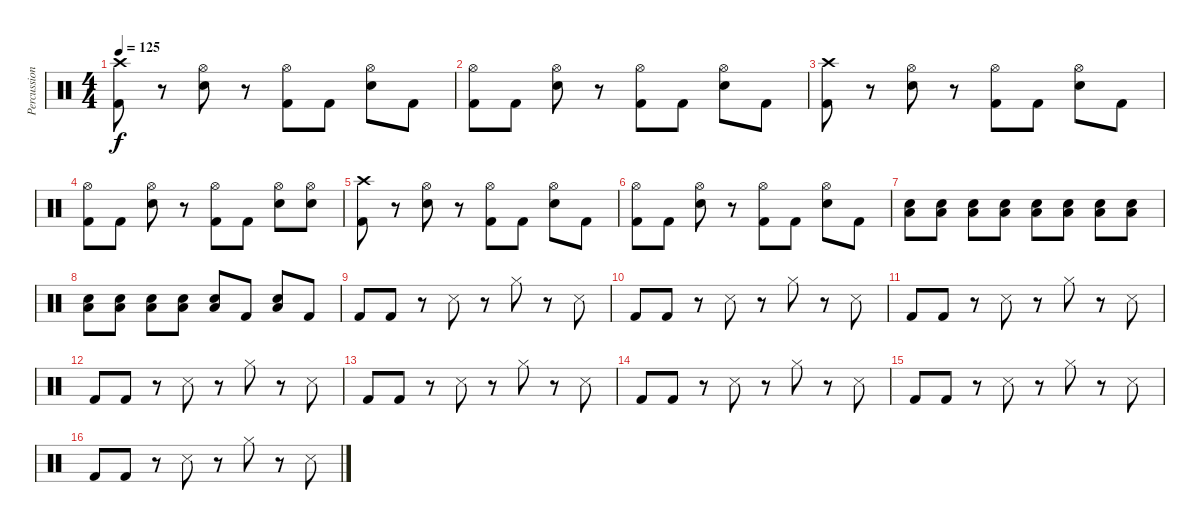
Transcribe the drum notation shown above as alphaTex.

\track ("Percussion" "Percussion") {instrument percussion}
\staff {score}
\articulation defaults
\ts (4 4)
\tempo 125
\clef neutral
\ks c
("Crash high (hit)" "Kick (hit) 2").8{dy f} r.8 ("Hi-Hat (open)" "Snare (hit) 2").8 r.8 ("Hi-Hat (open)" "Kick (hit) 2").8 "Kick (hit) 2".8 ("Hi-Hat (open)" "Snare (hit) 2").8 "Kick (hit) 2".8 |
("Hi-Hat (open)" "Kick (hit) 2").8 "Kick (hit) 2".8 ("Hi-Hat (open)" "Snare (hit) 2").8 r.8 ("Hi-Hat (open)" "Kick (hit) 2").8 "Kick (hit) 2".8 ("Hi-Hat (open)" "Snare (hit) 2").8 "Kick (hit) 2".8 |
("Crash high (hit)" "Kick (hit) 2").8 r.8 ("Hi-Hat (open)" "Snare (hit) 2").8 r.8 ("Hi-Hat (open)" "Kick (hit) 2").8 "Kick (hit) 2".8 ("Hi-Hat (open)" "Snare (hit) 2").8 "Kick (hit) 2".8 |
("Hi-Hat (open)" "Kick (hit) 2").8 "Kick (hit) 2".8 ("Hi-Hat (open)" "Snare (hit) 2").8 r.8 ("Hi-Hat (open)" "Kick (hit) 2").8 "Kick (hit) 2".8 ("Hi-Hat (open)" "Snare (hit) 2").8 ("Hi-Hat (open)" "Snare (hit) 2").8 |
("Crash high (hit)" "Kick (hit) 2").8 r.8 ("Hi-Hat (open)" "Snare (hit) 2").8 r.8 ("Hi-Hat (open)" "Kick (hit) 2").8 "Kick (hit) 2".8 ("Hi-Hat (open)" "Snare (hit) 2").8 "Kick (hit) 2".8 |
("Hi-Hat (open)" "Kick (hit) 2").8 "Kick (hit) 2".8 ("Hi-Hat (open)" "Snare (hit) 2").8 r.8 ("Hi-Hat (open)" "Kick (hit) 2").8 "Kick (hit) 2".8 ("Hi-Hat (open)" "Snare (hit) 2").8 "Kick (hit) 2".8 |
("Low Floor Tom (hit)" "Snare (hit) 2").8 ("Low Floor Tom (hit)" "Snare (hit) 2").8 ("Low Floor Tom (hit)" "Snare (hit) 2").8 ("Low Floor Tom (hit)" "Snare (hit) 2").8 ("Low Floor Tom (hit)" "Snare (hit) 2").8 ("Low Floor Tom (hit)" "Snare (hit) 2").8 ("Low Floor Tom (hit)" "Snare (hit) 2").8 ("Low Floor Tom (hit)" "Snare (hit) 2").8 |
("Low Floor Tom (hit)" "Snare (hit) 2").8 ("Low Floor Tom (hit)" "Snare (hit) 2").8 ("Low Floor Tom (hit)" "Snare (hit) 2").8 ("Low Floor Tom (hit)" "Snare (hit) 2").8 ("Low Floor Tom (hit)" "Snare (hit) 2").8 "Kick (hit) 2".8 ("Low Floor Tom (hit)" "Snare (hit) 2").8 "Kick (hit) 2".8 |
"Kick (hit) 2".8 "Kick (hit) 2".8 r.8 "Snare (side stick) 3".8 r.8 "Hi-Hat (closed)".8 r.8 "Snare (side stick) 3".8 |
"Kick (hit) 2".8 "Kick (hit) 2".8 r.8 "Snare (side stick) 3".8 r.8 "Hi-Hat (closed)".8 r.8 "Snare (side stick) 3".8 |
"Kick (hit) 2".8 "Kick (hit) 2".8 r.8 "Snare (side stick) 3".8 r.8 "Hi-Hat (closed)".8 r.8 "Snare (side stick) 3".8 |
"Kick (hit) 2".8 "Kick (hit) 2".8 r.8 "Snare (side stick) 3".8 r.8 "Hi-Hat (closed)".8 r.8 "Snare (side stick) 3".8 |
"Kick (hit) 2".8 "Kick (hit) 2".8 r.8 "Snare (side stick) 3".8 r.8 "Hi-Hat (closed)".8 r.8 "Snare (side stick) 3".8 |
"Kick (hit) 2".8 "Kick (hit) 2".8 r.8 "Snare (side stick) 3".8 r.8 "Hi-Hat (closed)".8 r.8 "Snare (side stick) 3".8 |
"Kick (hit) 2".8 "Kick (hit) 2".8 r.8 "Snare (side stick) 3".8 r.8 "Hi-Hat (closed)".8 r.8 "Snare (side stick) 3".8 |
"Kick (hit) 2".8 "Kick (hit) 2".8 r.8 "Snare (side stick) 3".8 r.8 "Hi-Hat (closed)".8 r.8 "Snare (side stick) 3".8
